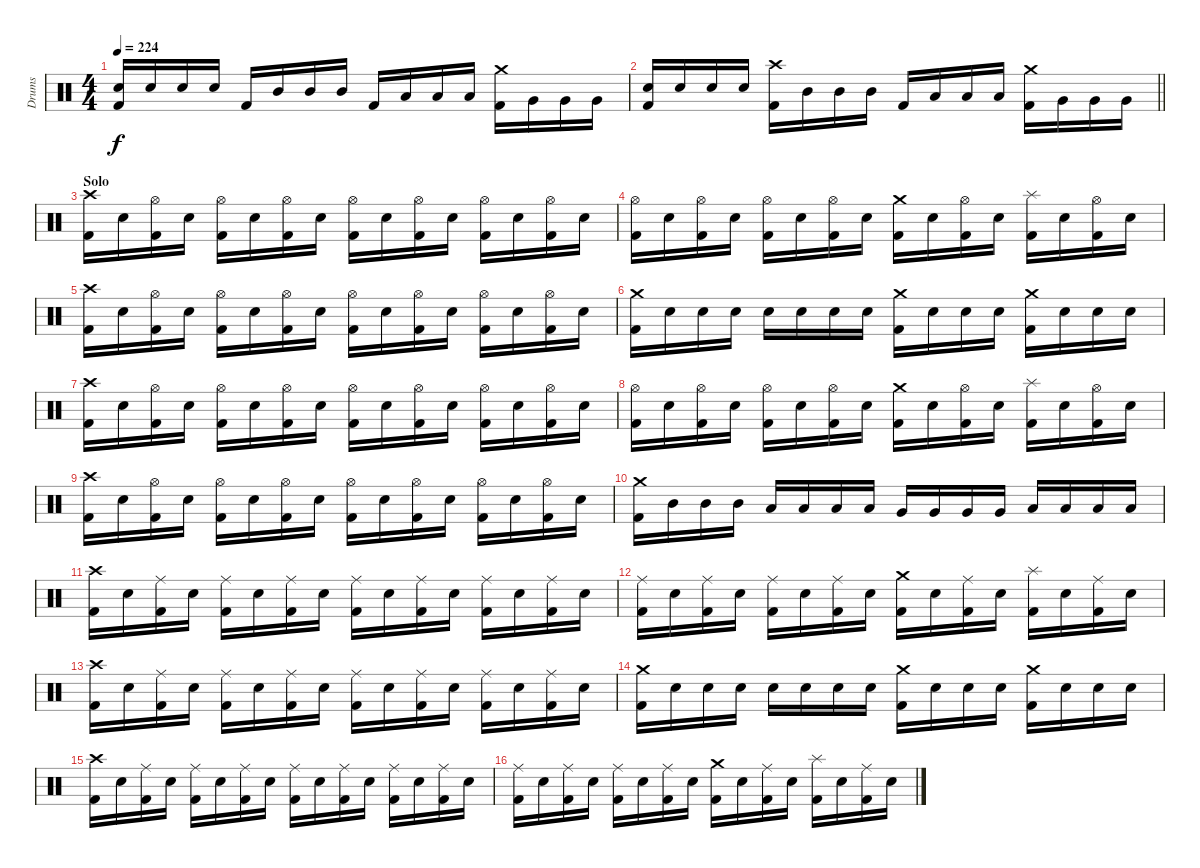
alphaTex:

\track ("Drums" "Drums") {instrument percussion}
\staff {score}
\articulation defaults
\ts (4 4)
\tempo 224
\clef neutral
\ks c
("Electric Snare (hit)" "Kick (hit) 2").16{dy f} "Electric Snare (hit)".16 "Electric Snare (hit)".16 "Electric Snare (hit)".16 "Kick (hit) 2".16 "Mid Tom (hit)".16 "Mid Tom (hit)".16 "Mid Tom (hit)".16 "Kick (hit) 2".16 "Low Tom (hit)".16 "Low Tom (hit)".16 "Low Tom (hit)".16 ("Crash medium (hit)" "Kick (hit) 2").16 "Very Low Tom (hit)".16 "Very Low Tom (hit)".16 "Very Low Tom (hit)".16 |
\barLineRight lightlight
("Electric Snare (hit)" "Kick (hit) 2").16 "Electric Snare (hit)".16 "Electric Snare (hit)".16 "Electric Snare (hit)".16 ("Crash high (hit)" "Kick (hit) 2").16 "Mid Tom (hit)".16 "Mid Tom (hit)".16 "Mid Tom (hit)".16 "Kick (hit) 2".16 "Low Tom (hit)".16 "Low Tom (hit)".16 "Low Tom (hit)".16 ("Crash medium (hit)" "Kick (hit) 2").16 "Very Low Tom (hit)".16 "Very Low Tom (hit)".16 "Very Low Tom (hit)".16 |
\section ("" "Solo")
("Crash high (hit)" "Kick (hit) 2").16 "Electric Snare (hit)".16 ("Hi-Hat (open)" "Kick (hit) 2").16 "Electric Snare (hit)".16 ("Hi-Hat (open)" "Kick (hit) 2").16 "Electric Snare (hit)".16 ("Hi-Hat (open)" "Kick (hit) 2").16 "Electric Snare (hit)".16 ("Hi-Hat (open)" "Kick (hit) 2").16 "Electric Snare (hit)".16 ("Hi-Hat (open)" "Kick (hit) 2").16 "Electric Snare (hit)".16 ("Hi-Hat (open)" "Kick (hit) 2").16 "Electric Snare (hit)".16 ("Hi-Hat (open)" "Kick (hit) 2").16 "Electric Snare (hit)".16 |
("Hi-Hat (open)" "Kick (hit) 2").16 "Electric Snare (hit)".16 ("Hi-Hat (open)" "Kick (hit) 2").16 "Electric Snare (hit)".16 ("Hi-Hat (open)" "Kick (hit) 2").16 "Electric Snare (hit)".16 ("Hi-Hat (open)" "Kick (hit) 2").16 "Electric Snare (hit)".16 ("Crash medium (hit)" "Kick (hit) 2").16 "Electric Snare (hit)".16 ("Hi-Hat (open)" "Kick (hit) 2").16 "Electric Snare (hit)".16 ("Splash (hit)" "Kick (hit) 2").16 "Electric Snare (hit)".16 ("Hi-Hat (open)" "Kick (hit) 2").16 "Electric Snare (hit)".16 |
("Crash high (hit)" "Kick (hit) 2").16 "Electric Snare (hit)".16 ("Hi-Hat (open)" "Kick (hit) 2").16 "Electric Snare (hit)".16 ("Hi-Hat (open)" "Kick (hit) 2").16 "Electric Snare (hit)".16 ("Hi-Hat (open)" "Kick (hit) 2").16 "Electric Snare (hit)".16 ("Hi-Hat (open)" "Kick (hit) 2").16 "Electric Snare (hit)".16 ("Hi-Hat (open)" "Kick (hit) 2").16 "Electric Snare (hit)".16 ("Hi-Hat (open)" "Kick (hit) 2").16 "Electric Snare (hit)".16 ("Hi-Hat (open)" "Kick (hit) 2").16 "Electric Snare (hit)".16 |
("Crash medium (hit)" "Kick (hit) 2").16 "Electric Snare (hit)".16 "Electric Snare (hit)".16 "Electric Snare (hit)".16 "Electric Snare (hit)".16 "Electric Snare (hit)".16 "Electric Snare (hit)".16 "Electric Snare (hit)".16 ("Crash medium (hit)" "Kick (hit) 2").16 "Electric Snare (hit)".16 "Electric Snare (hit)".16 "Electric Snare (hit)".16 ("Crash medium (hit)" "Kick (hit) 2").16 "Electric Snare (hit)".16 "Electric Snare (hit)".16 "Electric Snare (hit)".16 |
("Crash high (hit)" "Kick (hit) 2").16 "Electric Snare (hit)".16 ("Hi-Hat (open)" "Kick (hit) 2").16 "Electric Snare (hit)".16 ("Hi-Hat (open)" "Kick (hit) 2").16 "Electric Snare (hit)".16 ("Hi-Hat (open)" "Kick (hit) 2").16 "Electric Snare (hit)".16 ("Hi-Hat (open)" "Kick (hit) 2").16 "Electric Snare (hit)".16 ("Hi-Hat (open)" "Kick (hit) 2").16 "Electric Snare (hit)".16 ("Hi-Hat (open)" "Kick (hit) 2").16 "Electric Snare (hit)".16 ("Hi-Hat (open)" "Kick (hit) 2").16 "Electric Snare (hit)".16 |
("Hi-Hat (open)" "Kick (hit) 2").16 "Electric Snare (hit)".16 ("Hi-Hat (open)" "Kick (hit) 2").16 "Electric Snare (hit)".16 ("Hi-Hat (open)" "Kick (hit) 2").16 "Electric Snare (hit)".16 ("Hi-Hat (open)" "Kick (hit) 2").16 "Electric Snare (hit)".16 ("Crash medium (hit)" "Kick (hit) 2").16 "Electric Snare (hit)".16 ("Hi-Hat (open)" "Kick (hit) 2").16 "Electric Snare (hit)".16 ("Splash (hit)" "Kick (hit) 2").16 "Electric Snare (hit)".16 ("Hi-Hat (open)" "Kick (hit) 2").16 "Electric Snare (hit)".16 |
("Crash high (hit)" "Kick (hit) 2").16 "Electric Snare (hit)".16 ("Hi-Hat (open)" "Kick (hit) 2").16 "Electric Snare (hit)".16 ("Hi-Hat (open)" "Kick (hit) 2").16 "Electric Snare (hit)".16 ("Hi-Hat (open)" "Kick (hit) 2").16 "Electric Snare (hit)".16 ("Hi-Hat (open)" "Kick (hit) 2").16 "Electric Snare (hit)".16 ("Hi-Hat (open)" "Kick (hit) 2").16 "Electric Snare (hit)".16 ("Hi-Hat (open)" "Kick (hit) 2").16 "Electric Snare (hit)".16 ("Hi-Hat (open)" "Kick (hit) 2").16 "Electric Snare (hit)".16 |
("Crash medium (hit)" "Kick (hit) 2").16 "Mid Tom (hit)".16 "Mid Tom (hit)".16 "Mid Tom (hit)".16 "Low Tom (hit)".16 "Low Tom (hit)".16 "Low Tom (hit)".16 "Low Tom (hit)".16 "Very Low Tom (hit)".16 "Very Low Tom (hit)".16 "Very Low Tom (hit)".16 "Very Low Tom (hit)".16 "Low Floor Tom (hit)".16 "Low Floor Tom (hit)".16 "Low Floor Tom (hit)".16 "Low Floor Tom (hit)".16 |
("Crash high (hit)" "Kick (hit) 2").16 "Electric Snare (hit)".16 ("Ride (middle)" "Kick (hit) 2").16 "Electric Snare (hit)".16 ("Ride (middle)" "Kick (hit) 2").16 "Electric Snare (hit)".16 ("Ride (middle)" "Kick (hit) 2").16 "Electric Snare (hit)".16 ("Ride (middle)" "Kick (hit) 2").16 "Electric Snare (hit)".16 ("Ride (middle)" "Kick (hit) 2").16 "Electric Snare (hit)".16 ("Ride (middle)" "Kick (hit) 2").16 "Electric Snare (hit)".16 ("Ride (middle)" "Kick (hit) 2").16 "Electric Snare (hit)".16 |
("Ride (middle)" "Kick (hit) 2").16 "Electric Snare (hit)".16 ("Ride (middle)" "Kick (hit) 2").16 "Electric Snare (hit)".16 ("Ride (middle)" "Kick (hit) 2").16 "Electric Snare (hit)".16 ("Ride (middle)" "Kick (hit) 2").16 "Electric Snare (hit)".16 ("Crash medium (hit)" "Kick (hit) 2").16 "Electric Snare (hit)".16 ("Ride (middle)" "Kick (hit) 2").16 "Electric Snare (hit)".16 ("Splash (hit)" "Kick (hit) 2").16 "Electric Snare (hit)".16 ("Ride (middle)" "Kick (hit) 2").16 "Electric Snare (hit)".16 |
("Crash high (hit)" "Kick (hit) 2").16 "Electric Snare (hit)".16 ("Ride (middle)" "Kick (hit) 2").16 "Electric Snare (hit)".16 ("Ride (middle)" "Kick (hit) 2").16 "Electric Snare (hit)".16 ("Ride (middle)" "Kick (hit) 2").16 "Electric Snare (hit)".16 ("Ride (middle)" "Kick (hit) 2").16 "Electric Snare (hit)".16 ("Ride (middle)" "Kick (hit) 2").16 "Electric Snare (hit)".16 ("Ride (middle)" "Kick (hit) 2").16 "Electric Snare (hit)".16 ("Ride (middle)" "Kick (hit) 2").16 "Electric Snare (hit)".16 |
("Crash medium (hit)" "Kick (hit) 2").16 "Electric Snare (hit)".16 "Electric Snare (hit)".16 "Electric Snare (hit)".16 "Electric Snare (hit)".16 "Electric Snare (hit)".16 "Electric Snare (hit)".16 "Electric Snare (hit)".16 ("Crash medium (hit)" "Kick (hit) 2").16 "Electric Snare (hit)".16 "Electric Snare (hit)".16 "Electric Snare (hit)".16 ("Crash medium (hit)" "Kick (hit) 2").16 "Electric Snare (hit)".16 "Electric Snare (hit)".16 "Electric Snare (hit)".16 |
("Crash high (hit)" "Kick (hit) 2").16 "Electric Snare (hit)".16 ("Ride (middle)" "Kick (hit) 2").16 "Electric Snare (hit)".16 ("Ride (middle)" "Kick (hit) 2").16 "Electric Snare (hit)".16 ("Ride (middle)" "Kick (hit) 2").16 "Electric Snare (hit)".16 ("Ride (middle)" "Kick (hit) 2").16 "Electric Snare (hit)".16 ("Ride (middle)" "Kick (hit) 2").16 "Electric Snare (hit)".16 ("Ride (middle)" "Kick (hit) 2").16 "Electric Snare (hit)".16 ("Ride (middle)" "Kick (hit) 2").16 "Electric Snare (hit)".16 |
("Ride (middle)" "Kick (hit) 2").16 "Electric Snare (hit)".16 ("Ride (middle)" "Kick (hit) 2").16 "Electric Snare (hit)".16 ("Ride (middle)" "Kick (hit) 2").16 "Electric Snare (hit)".16 ("Ride (middle)" "Kick (hit) 2").16 "Electric Snare (hit)".16 ("Crash medium (hit)" "Kick (hit) 2").16 "Electric Snare (hit)".16 ("Ride (middle)" "Kick (hit) 2").16 "Electric Snare (hit)".16 ("Splash (hit)" "Kick (hit) 2").16 "Electric Snare (hit)".16 ("Ride (middle)" "Kick (hit) 2").16 "Electric Snare (hit)".16
